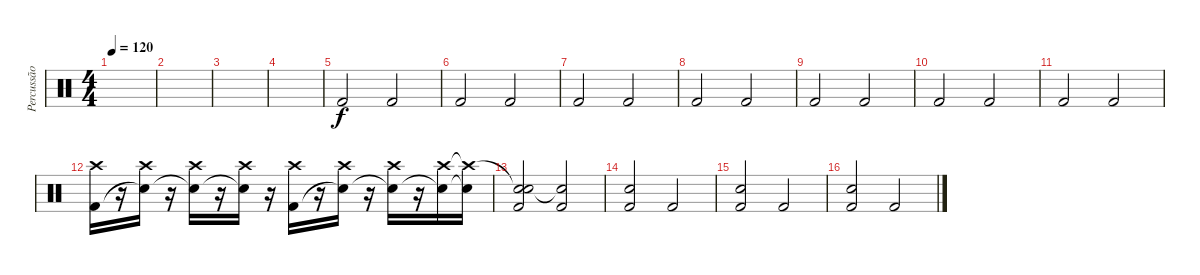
\track ("Percussão" "Percussão") {instrument percussion}
\staff {score}
\articulation defaults
\ts (4 4)
\tempo 120
\clef neutral
\ks c
|
|
|
|
"Kick (hit) 2".2 "Kick (hit) 2".2 |
"Kick (hit) 2".2 "Kick (hit) 2".2 |
"Kick (hit) 2".2 "Kick (hit) 2".2 |
"Kick (hit) 2".2 "Kick (hit) 2".2 |
"Kick (hit) 2".2 "Kick (hit) 2".2 |
"Kick (hit) 2".2 "Kick (hit) 2".2 |
"Kick (hit) 2".2 "Kick (hit) 2".2 |
("Crash high (hit)" "Kick (hit) 2").16 r.16 ("Crash high (hit)" "Snare (hit)"{t}).16 r.16 ("Crash high (hit)" "Snare (hit)"{t}).16 r.16 ("Crash high (hit)" "Snare (hit)"{t}).16 r.16 ("Crash high (hit)" "Kick (hit) 2").16 r.16 ("Crash high (hit)" "Snare (hit)"{t}).16 r.16 ("Crash high (hit)" "Snare (hit)"{t}).16 r.16 ("Crash high (hit)" "Snare (hit)"{t}).16 ("Crash high (hit)"{t} "Snare (hit)"{t}).16 |
("Snare (hit) 2"{t} "Snare (hit) 2" "Kick (hit) 2").2 ("Snare (hit)"{t} "Kick (hit) 2").2 |
("Snare (hit) 2" "Kick (hit) 2").2 "Kick (hit) 2".2 |
("Snare (hit) 2" "Kick (hit) 2").2 "Kick (hit) 2".2 |
("Snare (hit) 2" "Kick (hit) 2").2 "Kick (hit) 2".2
